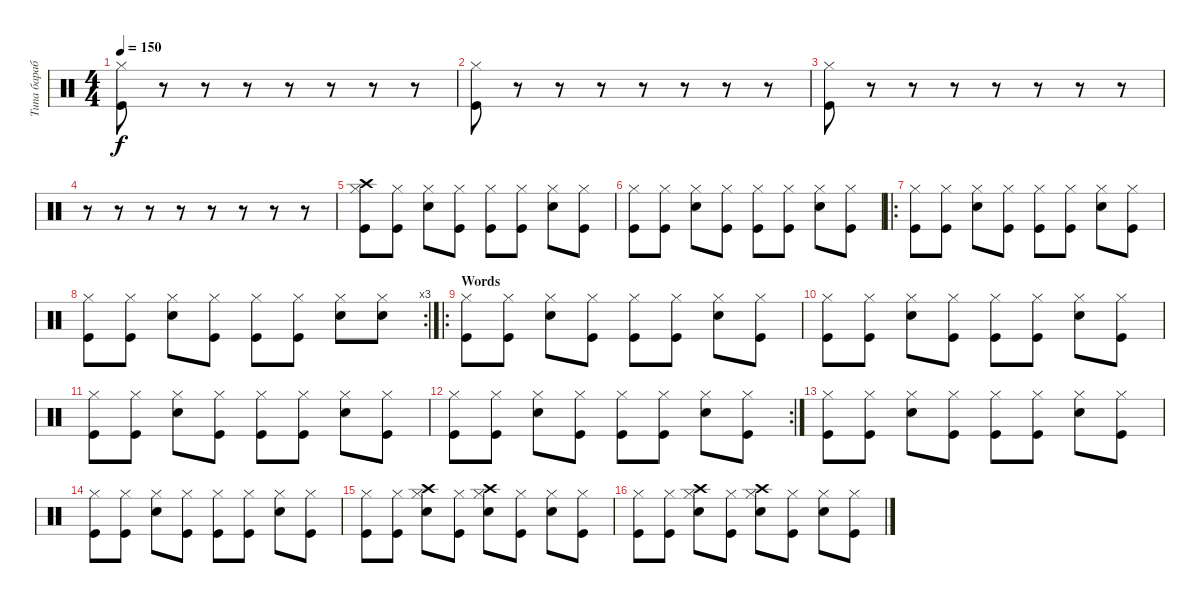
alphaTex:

\track ("Типа барабанщик" "Типа бараб") {instrument percussion}
\staff {score}
\articulation defaults
\ts (4 4)
\tempo 150
\clef neutral
\ks c
("Hi-Hat (closed)" "Kick (hit)").8{dy f} r.8 r.8 r.8 r.8 r.8 r.8 r.8 |
("Hi-Hat (closed)" "Kick (hit)").8 r.8 r.8 r.8 r.8 r.8 r.8 r.8 |
("Hi-Hat (closed)" "Kick (hit)").8 r.8 r.8 r.8 r.8 r.8 r.8 r.8 |
r.8 r.8 r.8 r.8 r.8 r.8 r.8 r.8 |
("Hi-Hat (closed)" "Crash high (hit)" "Kick (hit)").8 ("Hi-Hat (closed)" "Kick (hit)").8 ("Hi-Hat (closed)" "Snare (hit) 2").8 ("Hi-Hat (closed)" "Kick (hit)").8 ("Hi-Hat (closed)" "Kick (hit)").8 ("Hi-Hat (closed)" "Kick (hit)").8 ("Hi-Hat (closed)" "Snare (hit) 2").8 ("Hi-Hat (closed)" "Kick (hit)").8 |
("Hi-Hat (closed)" "Kick (hit)").8 ("Hi-Hat (closed)" "Kick (hit)").8 ("Hi-Hat (closed)" "Snare (hit) 2").8 ("Hi-Hat (closed)" "Kick (hit)").8 ("Hi-Hat (closed)" "Kick (hit)").8 ("Hi-Hat (closed)" "Kick (hit)").8 ("Hi-Hat (closed)" "Snare (hit) 2").8 ("Hi-Hat (closed)" "Kick (hit)").8 |
\ro
("Hi-Hat (closed)" "Kick (hit)").8 ("Hi-Hat (closed)" "Kick (hit)").8 ("Hi-Hat (closed)" "Snare (hit) 2").8 ("Hi-Hat (closed)" "Kick (hit)").8 ("Hi-Hat (closed)" "Kick (hit)").8 ("Hi-Hat (closed)" "Kick (hit)").8 ("Hi-Hat (closed)" "Snare (hit) 2").8 ("Hi-Hat (closed)" "Kick (hit)").8 |
\rc 3
("Hi-Hat (closed)" "Kick (hit)").8 ("Hi-Hat (closed)" "Kick (hit)").8 ("Hi-Hat (closed)" "Snare (hit) 2").8 ("Hi-Hat (closed)" "Kick (hit)").8 ("Hi-Hat (closed)" "Kick (hit)").8 ("Hi-Hat (closed)" "Kick (hit)").8 ("Hi-Hat (closed)" "Snare (hit) 2").8 ("Hi-Hat (closed)" "Snare (hit) 2").8 |
\ro
\section ("" "Words")
("Hi-Hat (closed)" "Kick (hit)").8 ("Hi-Hat (closed)" "Kick (hit)").8 ("Hi-Hat (closed)" "Snare (hit) 2").8 ("Hi-Hat (closed)" "Kick (hit)").8 ("Hi-Hat (closed)" "Kick (hit)").8 ("Hi-Hat (closed)" "Kick (hit)").8 ("Hi-Hat (closed)" "Snare (hit) 2").8 ("Hi-Hat (closed)" "Kick (hit)").8 |
("Hi-Hat (closed)" "Kick (hit)").8 ("Hi-Hat (closed)" "Kick (hit)").8 ("Hi-Hat (closed)" "Snare (hit) 2").8 ("Hi-Hat (closed)" "Kick (hit)").8 ("Hi-Hat (closed)" "Kick (hit)").8 ("Hi-Hat (closed)" "Kick (hit)").8 ("Hi-Hat (closed)" "Snare (hit) 2").8 ("Hi-Hat (closed)" "Kick (hit)").8 |
("Hi-Hat (closed)" "Kick (hit)").8 ("Hi-Hat (closed)" "Kick (hit)").8 ("Hi-Hat (closed)" "Snare (hit) 2").8 ("Hi-Hat (closed)" "Kick (hit)").8 ("Hi-Hat (closed)" "Kick (hit)").8 ("Hi-Hat (closed)" "Kick (hit)").8 ("Hi-Hat (closed)" "Snare (hit) 2").8 ("Hi-Hat (closed)" "Kick (hit)").8 |
\rc 2
("Hi-Hat (closed)" "Kick (hit)").8 ("Hi-Hat (closed)" "Kick (hit)").8 ("Hi-Hat (closed)" "Snare (hit) 2").8 ("Hi-Hat (closed)" "Kick (hit)").8 ("Hi-Hat (closed)" "Kick (hit)").8 ("Hi-Hat (closed)" "Kick (hit)").8 ("Hi-Hat (closed)" "Snare (hit) 2").8 ("Hi-Hat (closed)" "Kick (hit)").8 |
("Hi-Hat (closed)" "Kick (hit)").8 ("Hi-Hat (closed)" "Kick (hit)").8 ("Hi-Hat (closed)" "Snare (hit) 2").8 ("Hi-Hat (closed)" "Kick (hit)").8 ("Hi-Hat (closed)" "Kick (hit)").8 ("Hi-Hat (closed)" "Kick (hit)").8 ("Hi-Hat (closed)" "Snare (hit) 2").8 ("Hi-Hat (closed)" "Kick (hit)").8 |
("Hi-Hat (closed)" "Kick (hit)").8 ("Hi-Hat (closed)" "Kick (hit)").8 ("Hi-Hat (closed)" "Snare (hit) 2").8 ("Hi-Hat (closed)" "Kick (hit)").8 ("Hi-Hat (closed)" "Kick (hit)").8 ("Hi-Hat (closed)" "Kick (hit)").8 ("Hi-Hat (closed)" "Snare (hit) 2").8 ("Hi-Hat (closed)" "Kick (hit)").8 |
("Hi-Hat (closed)" "Kick (hit)").8 ("Hi-Hat (closed)" "Kick (hit)").8 ("Hi-Hat (closed)" "Snare (hit) 2" "Crash high (hit)").8 ("Hi-Hat (closed)" "Kick (hit)").8 ("Hi-Hat (closed)" "Snare (hit) 2" "Crash high (hit)").8 ("Hi-Hat (closed)" "Kick (hit)").8 ("Hi-Hat (closed)" "Snare (hit) 2").8 ("Hi-Hat (closed)" "Kick (hit)").8 |
("Hi-Hat (closed)" "Kick (hit)").8 ("Hi-Hat (closed)" "Kick (hit)").8 ("Hi-Hat (closed)" "Snare (hit) 2" "Crash high (hit)").8 ("Hi-Hat (closed)" "Kick (hit)").8 ("Hi-Hat (closed)" "Snare (hit) 2" "Crash high (hit)").8 ("Hi-Hat (closed)" "Kick (hit)").8 ("Hi-Hat (closed)" "Snare (hit) 2").8 ("Hi-Hat (closed)" "Kick (hit)").8
